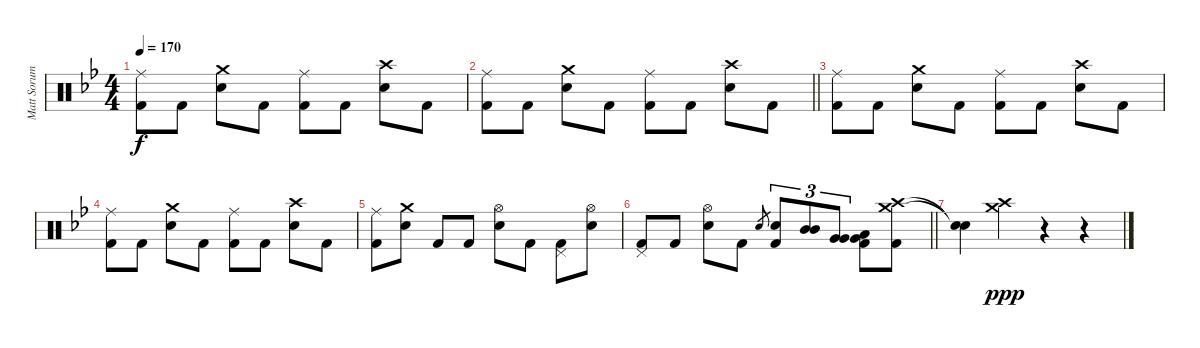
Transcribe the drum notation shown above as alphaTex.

\track ("Matt Sorum - Drums" "Matt Sorum") {instrument percussion}
\staff {score}
\articulation defaults
\ts (4 4)
\tempo 170
\clef neutral
\ks bb
("Ride (middle)" "Kick (hit) 2").8{dy f} "Kick (hit) 2".8 ("Crash medium (hit)" "Snare (hit) 2").8 "Kick (hit) 2".8 ("Ride (middle)" "Kick (hit) 2").8 "Kick (hit) 2".8 ("Crash high (hit)" "Snare (hit) 2").8 "Kick (hit) 2".8 |
\barLineRight lightlight
("Ride (middle)" "Kick (hit) 2").8 "Kick (hit) 2".8 ("Crash medium (hit)" "Snare (hit) 2").8 "Kick (hit) 2".8 ("Ride (middle)" "Kick (hit) 2").8 "Kick (hit) 2".8 ("Crash high (hit)" "Snare (hit) 2").8 "Kick (hit) 2".8 |
("Ride (middle)" "Kick (hit) 2").8 "Kick (hit) 2".8 ("Crash medium (hit)" "Snare (hit) 2").8 "Kick (hit) 2".8 ("Ride (middle)" "Kick (hit) 2").8 "Kick (hit) 2".8 ("Crash high (hit)" "Snare (hit) 2").8 "Kick (hit) 2".8 |
("Ride (middle)" "Kick (hit) 2").8 "Kick (hit) 2".8 ("Crash medium (hit)" "Snare (hit) 2").8 "Kick (hit) 2".8 ("Ride (middle)" "Kick (hit) 2").8 "Kick (hit) 2".8 ("Crash high (hit)" "Snare (hit) 2").8 "Kick (hit) 2".8 |
("Ride (middle)" "Kick (hit) 2").8 ("Crash medium (hit)" "Snare (hit) 2").8 "Kick (hit) 2".8 "Kick (hit) 2".8 ("Hi-Hat (open)" "Snare (hit) 2").8 "Kick (hit) 2".8 ("Pedal Hi-Hat (hit)" "Kick (hit) 2").8 ("Hi-Hat (open)" "Snare (hit) 2").8 |
\barLineRight lightlight
("Pedal Hi-Hat (hit)" "Kick (hit) 2").8 "Kick (hit) 2".8 ("Hi-Hat (open)" "Snare (hit) 2").8 "Kick (hit) 2".8 "Snare (hit) 2".8{gr} ("Snare (hit) 2" "Kick (hit) 2").8{tu (3 2)} ("Mid Tom (hit)" "Mid Tom (hit)").8{tu (3 2)} ("Very Low Tom (hit)" "Very Low Tom (hit)").8{tu (3 2)} ("Very Low Tom (hit)" "Low Floor Tom (hit)" "Kick (hit) 2").8 ("Crash medium (hit)" "Crash high (hit)" "Kick (hit) 2").8 |
("Snare (hit)"{t} "Snare (hit)"{t}).4 ("Crash medium (hit)" "Crash high (hit)").4{dy ppp} r.4 r.4
